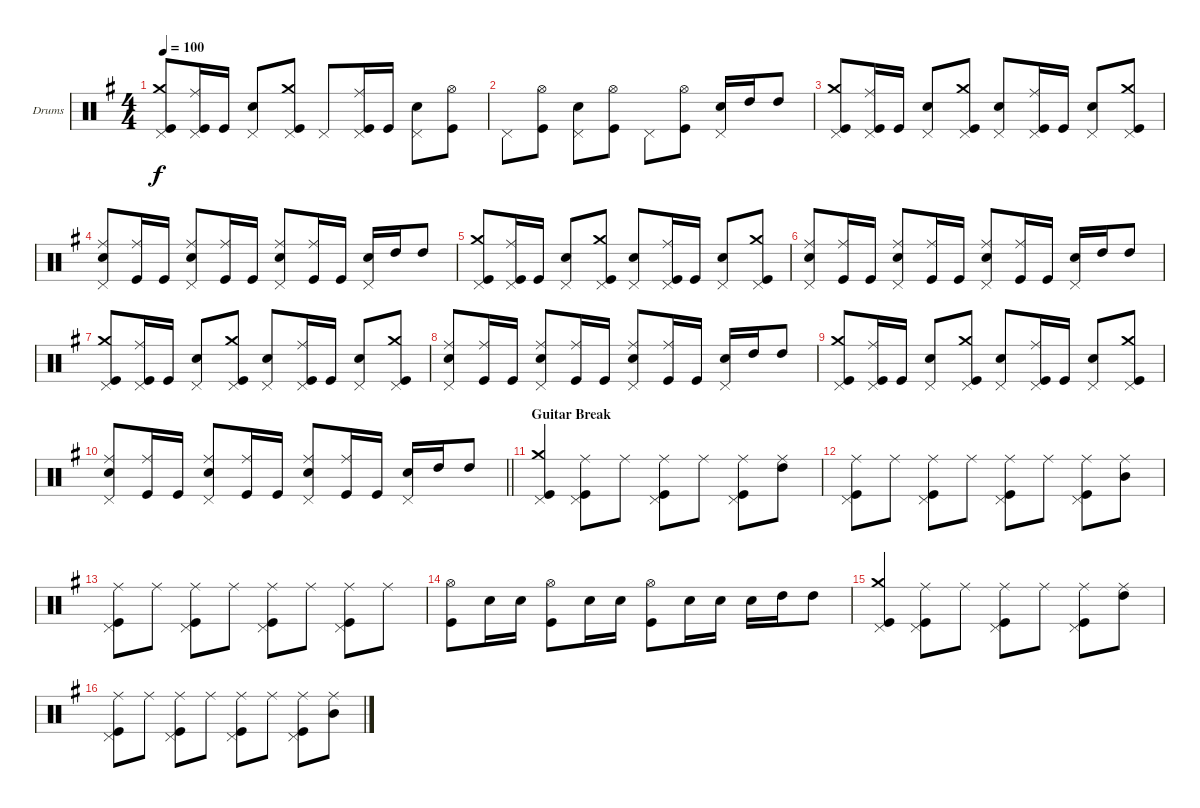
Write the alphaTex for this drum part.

\bracketExtendMode groupsimilarinstruments
\firstSystemTrackNameOrientation horizontal
\otherSystemsTrackNameOrientation horizontal
\track ("Барабаны" "Drums") {instrument percussion}
\staff {score}
\articulation defaults
\ts (4 4)
\tempo 100
\clef neutral
\ks eminor
("Kick (hit)" "Crash medium (hit)" "Pedal Hi-Hat (hit)").8{dy f} ("Kick (hit)" "Pedal Hi-Hat (hit)" "Ride (middle)").16 "Kick (hit)".16 ("Snare (hit) 2" "Pedal Hi-Hat (hit)").8 ("Kick (hit)" "Crash medium (hit)" "Pedal Hi-Hat (hit)").8 "Pedal Hi-Hat (hit)".8 ("Kick (hit)" "Ride (middle)" "Pedal Hi-Hat (hit)").16 "Kick (hit)".16 ("Snare (hit) 2" "Pedal Hi-Hat (hit)").8 ("Kick (hit)" "Hi-Hat (open)").8 |
"Pedal Hi-Hat (hit)".8 ("Kick (hit)" "Hi-Hat (open)").8 ("Snare (hit) 2" "Pedal Hi-Hat (hit)").8 ("Kick (hit)" "Hi-Hat (open)").8 "Pedal Hi-Hat (hit)".8 ("Hi-Hat (open)" "Kick (hit)").8 ("Pedal Hi-Hat (hit)" "Snare (hit) 2").16 "High Tom (hit)".16 "High Tom (hit)".8 |
("Kick (hit)" "Crash medium (hit)" "Pedal Hi-Hat (hit)").8 ("Kick (hit)" "Pedal Hi-Hat (hit)" "Ride (middle)").16 "Kick (hit)".16 ("Snare (hit) 2" "Pedal Hi-Hat (hit)").8 ("Kick (hit)" "Crash medium (hit)" "Pedal Hi-Hat (hit)").8 ("Pedal Hi-Hat (hit)" "Snare (hit) 2").8 ("Kick (hit)" "Ride (middle)" "Pedal Hi-Hat (hit)").16 "Kick (hit)".16 ("Snare (hit) 2" "Pedal Hi-Hat (hit)").8 ("Kick (hit)" "Crash medium (hit)" "Pedal Hi-Hat (hit)").8 |
("Pedal Hi-Hat (hit)" "Snare (hit) 2" "Ride (middle)").8 ("Kick (hit)" "Ride (middle)").16 "Kick (hit)".16 ("Snare (hit) 2" "Pedal Hi-Hat (hit)" "Ride (middle)").8 ("Kick (hit)" "Ride (middle)").16 "Kick (hit)".16 ("Pedal Hi-Hat (hit)" "Ride (middle)" "Snare (hit) 2").8 ("Kick (hit)" "Ride (middle)").16 "Kick (hit)".16 ("Pedal Hi-Hat (hit)" "Snare (hit) 2").16 "High Tom (hit)".16 "High Tom (hit)".8 |
("Kick (hit)" "Crash medium (hit)" "Pedal Hi-Hat (hit)").8 ("Kick (hit)" "Pedal Hi-Hat (hit)" "Ride (middle)").16 "Kick (hit)".16 ("Snare (hit) 2" "Pedal Hi-Hat (hit)").8 ("Kick (hit)" "Crash medium (hit)" "Pedal Hi-Hat (hit)").8 ("Pedal Hi-Hat (hit)" "Snare (hit) 2").8 ("Kick (hit)" "Ride (middle)" "Pedal Hi-Hat (hit)").16 "Kick (hit)".16 ("Snare (hit) 2" "Pedal Hi-Hat (hit)").8 ("Kick (hit)" "Crash medium (hit)" "Pedal Hi-Hat (hit)").8 |
("Pedal Hi-Hat (hit)" "Snare (hit) 2" "Ride (middle)").8 ("Kick (hit)" "Ride (middle)").16 "Kick (hit)".16 ("Snare (hit) 2" "Pedal Hi-Hat (hit)" "Ride (middle)").8 ("Kick (hit)" "Ride (middle)").16 "Kick (hit)".16 ("Pedal Hi-Hat (hit)" "Ride (middle)" "Snare (hit) 2").8 ("Kick (hit)" "Ride (middle)").16 "Kick (hit)".16 ("Pedal Hi-Hat (hit)" "Snare (hit) 2").16 "High Tom (hit)".16 "High Tom (hit)".8 |
("Kick (hit)" "Crash medium (hit)" "Pedal Hi-Hat (hit)").8 ("Kick (hit)" "Pedal Hi-Hat (hit)" "Ride (middle)").16 "Kick (hit)".16 ("Snare (hit) 2" "Pedal Hi-Hat (hit)").8 ("Kick (hit)" "Crash medium (hit)" "Pedal Hi-Hat (hit)").8 ("Pedal Hi-Hat (hit)" "Snare (hit) 2").8 ("Kick (hit)" "Ride (middle)" "Pedal Hi-Hat (hit)").16 "Kick (hit)".16 ("Snare (hit) 2" "Pedal Hi-Hat (hit)").8 ("Kick (hit)" "Crash medium (hit)" "Pedal Hi-Hat (hit)").8 |
("Pedal Hi-Hat (hit)" "Snare (hit) 2" "Ride (middle)").8 ("Kick (hit)" "Ride (middle)").16 "Kick (hit)".16 ("Snare (hit) 2" "Pedal Hi-Hat (hit)" "Ride (middle)").8 ("Kick (hit)" "Ride (middle)").16 "Kick (hit)".16 ("Pedal Hi-Hat (hit)" "Ride (middle)" "Snare (hit) 2").8 ("Kick (hit)" "Ride (middle)").16 "Kick (hit)".16 ("Pedal Hi-Hat (hit)" "Snare (hit) 2").16 "High Tom (hit)".16 "High Tom (hit)".8 |
("Kick (hit)" "Crash medium (hit)" "Pedal Hi-Hat (hit)").8 ("Kick (hit)" "Pedal Hi-Hat (hit)" "Ride (middle)").16 "Kick (hit)".16 ("Snare (hit) 2" "Pedal Hi-Hat (hit)").8 ("Kick (hit)" "Crash medium (hit)" "Pedal Hi-Hat (hit)").8 ("Pedal Hi-Hat (hit)" "Snare (hit) 2").8 ("Kick (hit)" "Ride (middle)" "Pedal Hi-Hat (hit)").16 "Kick (hit)".16 ("Snare (hit) 2" "Pedal Hi-Hat (hit)").8 ("Kick (hit)" "Crash medium (hit)" "Pedal Hi-Hat (hit)").8 |
\barLineRight lightlight
("Pedal Hi-Hat (hit)" "Snare (hit) 2" "Ride (middle)").8 ("Kick (hit)" "Ride (middle)").16 "Kick (hit)".16 ("Snare (hit) 2" "Pedal Hi-Hat (hit)" "Ride (middle)").8 ("Kick (hit)" "Ride (middle)").16 "Kick (hit)".16 ("Pedal Hi-Hat (hit)" "Ride (middle)" "Snare (hit) 2").8 ("Kick (hit)" "Ride (middle)").16 "Kick (hit)".16 ("Pedal Hi-Hat (hit)" "Snare (hit) 2").16 "High Tom (hit)".16 "High Tom (hit)".8 |
\section ("" "Guitar Break")
("Kick (hit)" "Crash medium (hit)" "Pedal Hi-Hat (hit)").4 ("Ride (middle)" "Pedal Hi-Hat (hit)" "Kick (hit)").8 "Ride (middle)".8 ("Ride (middle)" "Pedal Hi-Hat (hit)" "Kick (hit)").8 "Ride (middle)".8 ("Ride (middle)" "Pedal Hi-Hat (hit)" "Kick (hit)").8 ("Ride (middle)" "High Tom (hit)").8 |
("Kick (hit)" "Ride (middle)" "Pedal Hi-Hat (hit)").8 "Ride (middle)".8 ("Ride (middle)" "Pedal Hi-Hat (hit)" "Kick (hit)").8 "Ride (middle)".8 ("Ride (middle)" "Pedal Hi-Hat (hit)" "Kick (hit)").8 "Ride (middle)".8 ("Ride (middle)" "Pedal Hi-Hat (hit)" "Kick (hit)").8 ("Ride (middle)" "Mid Tom (hit)").8 |
("Kick (hit)" "Ride (middle)" "Pedal Hi-Hat (hit)").8 "Ride (middle)".8 ("Ride (middle)" "Pedal Hi-Hat (hit)" "Kick (hit)").8 "Ride (middle)".8 ("Ride (middle)" "Pedal Hi-Hat (hit)" "Kick (hit)").8 "Ride (middle)".8 ("Ride (middle)" "Pedal Hi-Hat (hit)" "Kick (hit)").8 "Ride (middle)".8 |
("Kick (hit)" "Hi-Hat (open)").8 "Snare (hit) 2".16 "Snare (hit) 2".16 ("Kick (hit)" "Hi-Hat (open)").8 "Snare (hit) 2".16 "Snare (hit) 2".16 ("Kick (hit)" "Hi-Hat (open)").8 "Snare (hit) 2".16 "Snare (hit) 2".16 "Snare (hit) 2".16 "High Tom (hit)".16 "High Tom (hit)".8 |
("Kick (hit)" "Crash medium (hit)" "Pedal Hi-Hat (hit)").4 ("Ride (middle)" "Pedal Hi-Hat (hit)" "Kick (hit)").8 "Ride (middle)".8 ("Ride (middle)" "Pedal Hi-Hat (hit)" "Kick (hit)").8 "Ride (middle)".8 ("Ride (middle)" "Pedal Hi-Hat (hit)" "Kick (hit)").8 ("Ride (middle)" "High Tom (hit)").8 |
("Kick (hit)" "Ride (middle)" "Pedal Hi-Hat (hit)").8 "Ride (middle)".8 ("Ride (middle)" "Pedal Hi-Hat (hit)" "Kick (hit)").8 "Ride (middle)".8 ("Ride (middle)" "Pedal Hi-Hat (hit)" "Kick (hit)").8 "Ride (middle)".8 ("Ride (middle)" "Pedal Hi-Hat (hit)" "Kick (hit)").8 ("Ride (middle)" "Mid Tom (hit)").8
